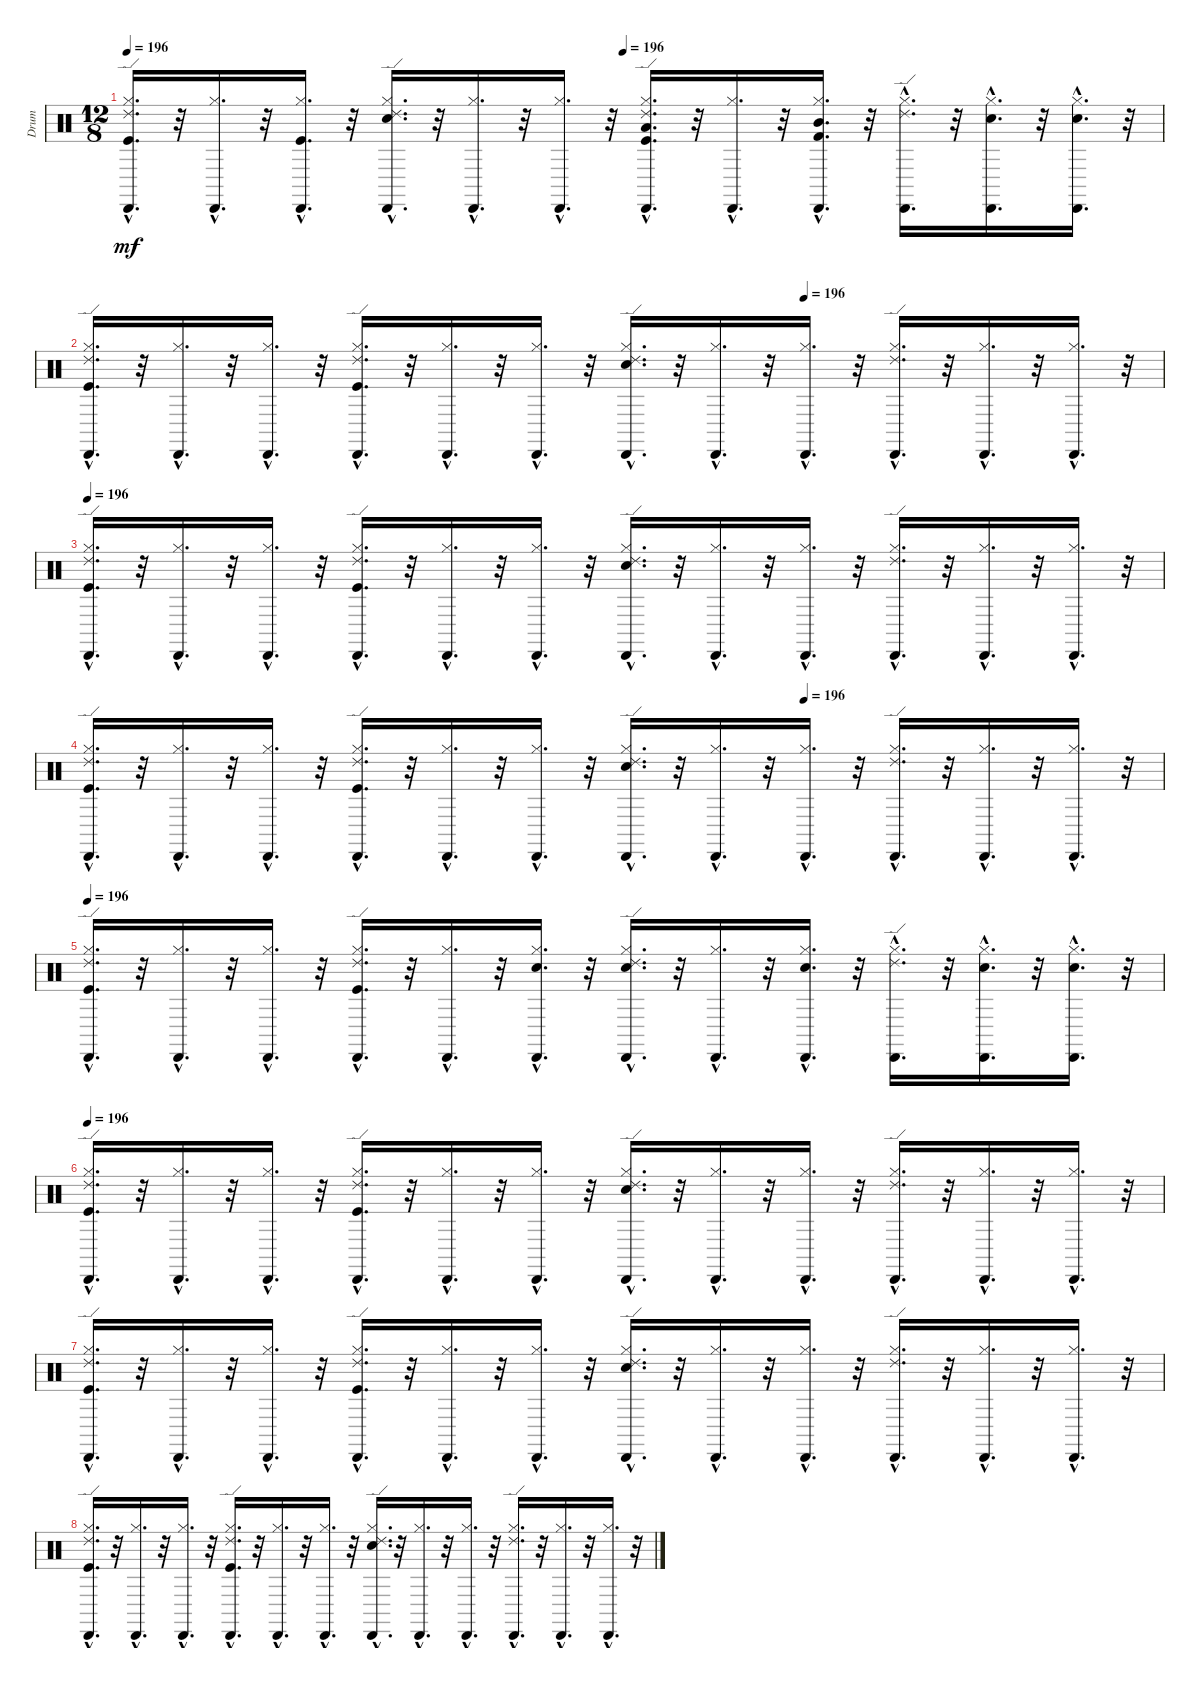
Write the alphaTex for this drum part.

\track ("Drum" "Drum") {instrument percussion}
\staff {score}
\articulation defaults
\ts (12 8)
\tempo 196
\tempo (196 0.4791666666666667)
\clef neutral
\ks c
("Kick (hit)"{hac} "Hi-Hat (closed)"{hac} "Cabasa (hit)"{hac} "Ride (edge) 2"{hac}).16{d dy mf} r.32 ("Hi-Hat (closed)"{hac} "Cabasa (hit)"{hac}).16{d} r.32 ("Hi-Hat (closed)"{hac} "Cabasa (hit)"{hac} "Kick (hit)"{hac}).16{d} r.32 ("Cabasa (hit)"{hac} "Snare (hit) 2"{hac} "Hi-Hat (closed)"{hac} "Ride (edge) 2"{hac}).16{d} r.32 ("Hi-Hat (closed)"{hac} "Cabasa (hit)"{hac}).16{d} r.32 ("Cabasa (hit)"{hac} "Hi-Hat (closed)"{hac}).16{d} r.32 ("Low Tom (hit)"{hac} "Kick (hit)"{hac} "Hi-Hat (closed)"{hac} "Ride (edge) 2"{hac} "Cabasa (hit)"{hac}).16{d} r.32 ("Cabasa (hit)"{hac} "Hi-Hat (closed)"{hac}).16{d} r.32 ("Cabasa (hit)"{hac} "Mid Tom (hit)"{hac} "Hi-Hat (closed)"{hac} "Kick (hit) 2"{hac}).16{d} r.32 ("Ride (edge) 2"{hac} "Cabasa (hit)"{hac} "Hi-Hat (closed)"{hac}).16{d} r.32 ("Cabasa (hit)"{hac} "Hi-Hat (closed)"{hac} "Snare (hit) 2"{hac}).16{d} r.32 ("Hi-Hat (closed)"{hac} "Cabasa (hit)"{hac} "Snare (hit) 2"{hac}).16{d} r.32 |
\tempo (196 0.6666666666666666)
("Hi-Hat (closed)"{hac} "Kick (hit)"{hac} "Ride (edge) 2"{hac} "Cabasa (hit)"{hac}).16{d} r.32 ("Hi-Hat (closed)"{hac} "Cabasa (hit)"{hac}).16{d} r.32 ("Hi-Hat (closed)"{hac} "Cabasa (hit)"{hac}).16{d} r.32 ("Kick (hit)"{hac} "Ride (edge) 2"{hac} "Cabasa (hit)"{hac} "Hi-Hat (closed)"{hac}).16{d} r.32 ("Cabasa (hit)"{hac} "Hi-Hat (closed)"{hac}).16{d} r.32 ("Hi-Hat (closed)"{hac} "Cabasa (hit)"{hac}).16{d} r.32 ("Cabasa (hit)"{hac} "Hi-Hat (closed)"{hac} "Snare (hit) 2"{hac} "Ride (edge) 2"{hac}).16{d} r.32 ("Hi-Hat (closed)"{hac} "Cabasa (hit)"{hac}).16{d} r.32 ("Hi-Hat (closed)"{hac} "Cabasa (hit)"{hac}).16{d} r.32 ("Cabasa (hit)"{hac} "Ride (edge) 2"{hac} "Hi-Hat (closed)"{hac}).16{d} r.32 ("Hi-Hat (closed)"{hac} "Cabasa (hit)"{hac}).16{d} r.32 ("Hi-Hat (closed)"{hac} "Cabasa (hit)"{hac}).16{d} r.32 |
\tempo 196
("Ride (edge) 2"{hac} "Cabasa (hit)"{hac} "Hi-Hat (closed)"{hac} "Kick (hit)"{hac}).16{d} r.32 ("Cabasa (hit)"{hac} "Hi-Hat (closed)"{hac}).16{d} r.32 ("Cabasa (hit)"{hac} "Hi-Hat (closed)"{hac}).16{d} r.32 ("Cabasa (hit)"{hac} "Hi-Hat (closed)"{hac} "Kick (hit)"{hac} "Ride (edge) 2"{hac}).16{d} r.32 ("Hi-Hat (closed)"{hac} "Cabasa (hit)"{hac}).16{d} r.32 ("Cabasa (hit)"{hac} "Hi-Hat (closed)"{hac}).16{d} r.32 ("Snare (hit) 2"{hac} "Ride (edge) 2"{hac} "Cabasa (hit)"{hac} "Hi-Hat (closed)"{hac}).16{d} r.32 ("Cabasa (hit)"{hac} "Hi-Hat (closed)"{hac}).16{d} r.32 ("Cabasa (hit)"{hac} "Hi-Hat (closed)"{hac}).16{d} r.32 ("Cabasa (hit)"{hac} "Ride (edge) 2"{hac} "Hi-Hat (closed)"{hac}).16{d} r.32 ("Cabasa (hit)"{hac} "Hi-Hat (closed)"{hac}).16{d} r.32 ("Hi-Hat (closed)"{hac} "Cabasa (hit)"{hac}).16{d} r.32 |
\tempo (196 0.6666666666666666)
("Ride (edge) 2"{hac} "Cabasa (hit)"{hac} "Kick (hit)"{hac} "Hi-Hat (closed)"{hac}).16{d} r.32 ("Cabasa (hit)"{hac} "Hi-Hat (closed)"{hac}).16{d} r.32 ("Cabasa (hit)"{hac} "Hi-Hat (closed)"{hac}).16{d} r.32 ("Ride (edge) 2"{hac} "Cabasa (hit)"{hac} "Kick (hit)"{hac} "Hi-Hat (closed)"{hac}).16{d} r.32 ("Cabasa (hit)"{hac} "Hi-Hat (closed)"{hac}).16{d} r.32 ("Cabasa (hit)"{hac} "Hi-Hat (closed)"{hac}).16{d} r.32 ("Ride (edge) 2"{hac} "Cabasa (hit)"{hac} "Snare (hit) 2"{hac} "Hi-Hat (closed)"{hac}).16{d} r.32 ("Cabasa (hit)"{hac} "Hi-Hat (closed)"{hac}).16{d} r.32 ("Cabasa (hit)"{hac} "Hi-Hat (closed)"{hac}).16{d} r.32 ("Ride (edge) 2"{hac} "Cabasa (hit)"{hac} "Hi-Hat (closed)"{hac}).16{d} r.32 ("Cabasa (hit)"{hac} "Hi-Hat (closed)"{hac}).16{d} r.32 ("Cabasa (hit)"{hac} "Hi-Hat (closed)"{hac}).16{d} r.32 |
\tempo 196
("Ride (edge) 2"{hac} "Kick (hit)"{hac} "Hi-Hat (closed)"{hac} "Cabasa (hit)"{hac}).16{d} r.32 ("Cabasa (hit)"{hac} "Hi-Hat (closed)"{hac}).16{d} r.32 ("Cabasa (hit)"{hac} "Hi-Hat (closed)"{hac}).16{d} r.32 ("Ride (edge) 2"{hac} "Cabasa (hit)"{hac} "Kick (hit)"{hac} "Hi-Hat (closed)"{hac}).16{d} r.32 ("Cabasa (hit)"{hac} "Hi-Hat (closed)"{hac}).16{d} r.32 ("Snare (hit) 2"{hac} "Cabasa (hit)"{hac} "Hi-Hat (closed)"{hac}).16{d} r.32 ("Cabasa (hit)"{hac} "Snare (hit) 2"{hac} "Ride (edge) 2"{hac} "Hi-Hat (closed)"{hac}).16{d} r.32 ("Hi-Hat (closed)"{hac} "Cabasa (hit)"{hac}).16{d} r.32 ("Snare (hit) 2"{hac} "Cabasa (hit)"{hac} "Hi-Hat (closed)"{hac}).16{d} r.32 ("Hi-Hat (closed)"{hac} "Ride (edge) 2"{hac} "Cabasa (hit)"{hac}).16{d} r.32 ("Snare (hit) 2"{hac} "Cabasa (hit)"{hac} "Hi-Hat (closed)"{hac}).16{d} r.32 ("Hi-Hat (closed)"{hac} "Snare (hit) 2"{hac} "Cabasa (hit)"{hac}).16{d} r.32 |
\tempo 196
("Cabasa (hit)"{hac} "Kick (hit)"{hac} "Ride (edge) 2"{hac} "Hi-Hat (closed)"{hac}).16{d} r.32 ("Cabasa (hit)"{hac} "Hi-Hat (closed)"{hac}).16{d} r.32 ("Cabasa (hit)"{hac} "Hi-Hat (closed)"{hac}).16{d} r.32 ("Kick (hit)"{hac} "Hi-Hat (closed)"{hac} "Ride (edge) 2"{hac} "Cabasa (hit)"{hac}).16{d} r.32 ("Cabasa (hit)"{hac} "Hi-Hat (closed)"{hac}).16{d} r.32 ("Hi-Hat (closed)"{hac} "Cabasa (hit)"{hac}).16{d} r.32 ("Ride (edge) 2"{hac} "Cabasa (hit)"{hac} "Snare (hit) 2"{hac} "Hi-Hat (closed)"{hac}).16{d} r.32 ("Hi-Hat (closed)"{hac} "Cabasa (hit)"{hac}).16{d} r.32 ("Cabasa (hit)"{hac} "Hi-Hat (closed)"{hac}).16{d} r.32 ("Hi-Hat (closed)"{hac} "Cabasa (hit)"{hac} "Ride (edge) 2"{hac}).16{d} r.32 ("Hi-Hat (closed)"{hac} "Cabasa (hit)"{hac}).16{d} r.32 ("Cabasa (hit)"{hac} "Hi-Hat (closed)"{hac}).16{d} r.32 |
("Ride (edge) 2"{hac} "Hi-Hat (closed)"{hac} "Cabasa (hit)"{hac} "Kick (hit)"{hac}).16{d} r.32 ("Hi-Hat (closed)"{hac} "Cabasa (hit)"{hac}).16{d} r.32 ("Hi-Hat (closed)"{hac} "Cabasa (hit)"{hac}).16{d} r.32 ("Hi-Hat (closed)"{hac} "Ride (edge) 2"{hac} "Kick (hit)"{hac} "Cabasa (hit)"{hac}).16{d} r.32 ("Hi-Hat (closed)"{hac} "Cabasa (hit)"{hac}).16{d} r.32 ("Hi-Hat (closed)"{hac} "Cabasa (hit)"{hac}).16{d} r.32 ("Hi-Hat (closed)"{hac} "Ride (edge) 2"{hac} "Snare (hit) 2"{hac} "Cabasa (hit)"{hac}).16{d} r.32 ("Hi-Hat (closed)"{hac} "Cabasa (hit)"{hac}).16{d} r.32 ("Cabasa (hit)"{hac} "Hi-Hat (closed)"{hac}).16{d} r.32 ("Hi-Hat (closed)"{hac} "Cabasa (hit)"{hac} "Ride (edge) 2"{hac}).16{d} r.32 ("Cabasa (hit)"{hac} "Hi-Hat (closed)"{hac}).16{d} r.32 ("Hi-Hat (closed)"{hac} "Cabasa (hit)"{hac}).16{d} r.32 |
("Hi-Hat (closed)"{hac} "Kick (hit)"{hac} "Cabasa (hit)"{hac} "Ride (edge) 2"{hac}).16{d} r.32 ("Hi-Hat (closed)"{hac} "Cabasa (hit)"{hac}).16{d} r.32 ("Hi-Hat (closed)"{hac} "Cabasa (hit)"{hac}).16{d} r.32 ("Hi-Hat (closed)"{hac} "Kick (hit)"{hac} "Cabasa (hit)"{hac} "Ride (edge) 2"{hac}).16{d} r.32 ("Hi-Hat (closed)"{hac} "Cabasa (hit)"{hac}).16{d} r.32 ("Hi-Hat (closed)"{hac} "Cabasa (hit)"{hac}).16{d} r.32 ("Hi-Hat (closed)"{hac} "Snare (hit) 2"{hac} "Cabasa (hit)"{hac} "Ride (edge) 2"{hac}).16{d} r.32 ("Hi-Hat (closed)"{hac} "Cabasa (hit)"{hac}).16{d} r.32 ("Hi-Hat (closed)"{hac} "Cabasa (hit)"{hac}).16{d} r.32 ("Hi-Hat (closed)"{hac} "Cabasa (hit)"{hac} "Ride (edge) 2"{hac}).16{d} r.32 ("Hi-Hat (closed)"{hac} "Cabasa (hit)"{hac}).16{d} r.32 ("Hi-Hat (closed)"{hac} "Cabasa (hit)"{hac}).16{d} r.32
